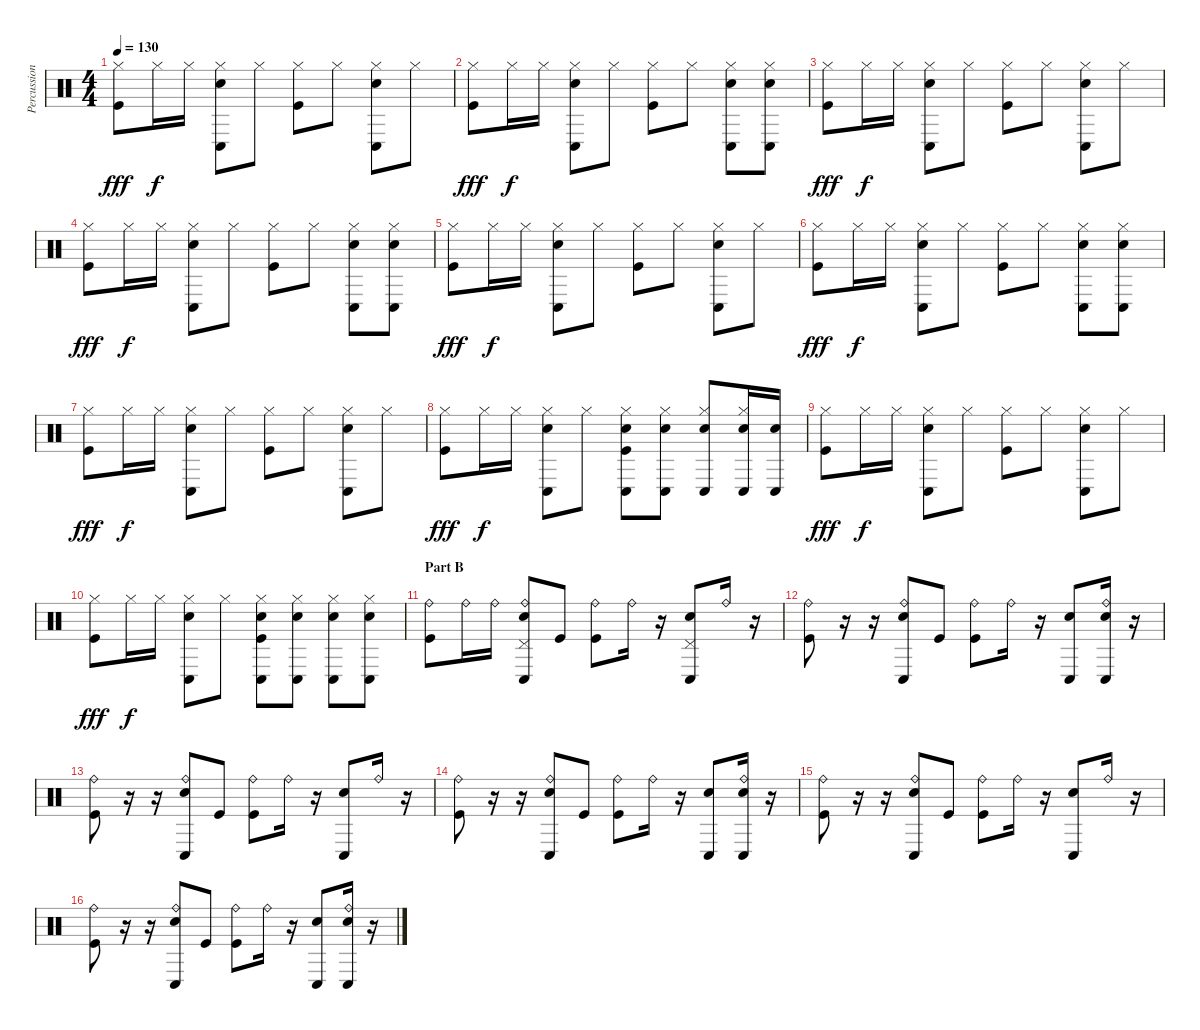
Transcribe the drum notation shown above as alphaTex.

\track ("Percussion" "Percussion") {instrument percussion}
\staff {score}
\articulation defaults
\ts (4 4)
\tempo 130
\clef neutral
\ks c
("Hi-Hat (closed)" "Kick (hit)").8{dy fff} "Hi-Hat (closed)".16{dy f} "Hi-Hat (closed)".16 ("Hi-Hat (closed)" "Conga low (hit)" "Electric Snare (hit)").8 "Hi-Hat (closed)".8 ("Hi-Hat (closed)" "Kick (hit)").8 "Hi-Hat (closed)".8 ("Hi-Hat (closed)" "Conga low (hit)" "Electric Snare (hit)").8 "Hi-Hat (closed)".8 |
("Hi-Hat (closed)" "Kick (hit)").8{dy fff} "Hi-Hat (closed)".16{dy f} "Hi-Hat (closed)".16 ("Hi-Hat (closed)" "Conga low (hit)" "Electric Snare (hit)").8 "Hi-Hat (closed)".8 ("Hi-Hat (closed)" "Kick (hit)").8 "Hi-Hat (closed)".8 ("Hi-Hat (closed)" "Conga low (hit)" "Electric Snare (hit)").8 ("Hi-Hat (closed)" "Conga low (hit)" "Electric Snare (hit)").8 |
("Hi-Hat (closed)" "Kick (hit)").8{dy fff} "Hi-Hat (closed)".16{dy f} "Hi-Hat (closed)".16 ("Hi-Hat (closed)" "Conga low (hit)" "Electric Snare (hit)").8 "Hi-Hat (closed)".8 ("Hi-Hat (closed)" "Kick (hit)").8 "Hi-Hat (closed)".8 ("Hi-Hat (closed)" "Conga low (hit)" "Electric Snare (hit)").8 "Hi-Hat (closed)".8 |
("Hi-Hat (closed)" "Kick (hit)").8{dy fff} "Hi-Hat (closed)".16{dy f} "Hi-Hat (closed)".16 ("Hi-Hat (closed)" "Conga low (hit)" "Electric Snare (hit)").8 "Hi-Hat (closed)".8 ("Hi-Hat (closed)" "Kick (hit)").8 "Hi-Hat (closed)".8 ("Hi-Hat (closed)" "Conga low (hit)" "Electric Snare (hit)").8 ("Hi-Hat (closed)" "Conga low (hit)" "Electric Snare (hit)").8 |
("Hi-Hat (closed)" "Kick (hit)").8{dy fff} "Hi-Hat (closed)".16{dy f} "Hi-Hat (closed)".16 ("Hi-Hat (closed)" "Conga low (hit)" "Electric Snare (hit)").8 "Hi-Hat (closed)".8 ("Hi-Hat (closed)" "Kick (hit)").8 "Hi-Hat (closed)".8 ("Hi-Hat (closed)" "Conga low (hit)" "Electric Snare (hit)").8 "Hi-Hat (closed)".8 |
("Hi-Hat (closed)" "Kick (hit)").8{dy fff} "Hi-Hat (closed)".16{dy f} "Hi-Hat (closed)".16 ("Hi-Hat (closed)" "Conga low (hit)" "Electric Snare (hit)").8 "Hi-Hat (closed)".8 ("Hi-Hat (closed)" "Kick (hit)").8 "Hi-Hat (closed)".8 ("Hi-Hat (closed)" "Conga low (hit)" "Electric Snare (hit)").8 ("Hi-Hat (closed)" "Conga low (hit)" "Electric Snare (hit)").8 |
("Hi-Hat (closed)" "Kick (hit)").8{dy fff} "Hi-Hat (closed)".16{dy f} "Hi-Hat (closed)".16 ("Hi-Hat (closed)" "Conga low (hit)" "Electric Snare (hit)").8 "Hi-Hat (closed)".8 ("Hi-Hat (closed)" "Kick (hit)").8 "Hi-Hat (closed)".8 ("Hi-Hat (closed)" "Conga low (hit)" "Electric Snare (hit)").8 "Hi-Hat (closed)".8 |
("Hi-Hat (closed)" "Kick (hit)").8{dy fff} "Hi-Hat (closed)".16{dy f} "Hi-Hat (closed)".16 ("Hi-Hat (closed)" "Conga low (hit)" "Electric Snare (hit)").8 "Hi-Hat (closed)".8 ("Hi-Hat (closed)" "Conga low (hit)" "Electric Snare (hit)" "Kick (hit)").8 ("Hi-Hat (closed)" "Conga low (hit)" "Electric Snare (hit)").8 ("Hi-Hat (closed)" "Conga low (hit)" "Electric Snare (hit)").8 ("Hi-Hat (closed)" "Conga low (hit)" "Electric Snare (hit)").16 ("Conga low (hit)" "Electric Snare (hit)").16 |
("Hi-Hat (closed)" "Kick (hit)").8{dy fff} "Hi-Hat (closed)".16{dy f} "Hi-Hat (closed)".16 ("Hi-Hat (closed)" "Conga low (hit)" "Electric Snare (hit)").8 "Hi-Hat (closed)".8 ("Hi-Hat (closed)" "Kick (hit)").8 "Hi-Hat (closed)".8 ("Hi-Hat (closed)" "Conga low (hit)" "Electric Snare (hit)").8 "Hi-Hat (closed)".8 |
("Hi-Hat (closed)" "Kick (hit)").8{dy fff} "Hi-Hat (closed)".16{dy f} "Hi-Hat (closed)".16 ("Hi-Hat (closed)" "Conga low (hit)" "Electric Snare (hit)").8 "Hi-Hat (closed)".8 ("Hi-Hat (closed)" "Conga low (hit)" "Electric Snare (hit)" "Kick (hit)").8 ("Hi-Hat (closed)" "Conga low (hit)" "Electric Snare (hit)").8 ("Hi-Hat (closed)" "Conga low (hit)" "Electric Snare (hit)").8 ("Hi-Hat (closed)" "Conga low (hit)" "Electric Snare (hit)").8 |
\section ("" "Part B")
("Ride (bell)" "Kick (hit)").8 "Ride (bell)".16 "Ride (bell)".16 ("Ride (bell)" "Pedal Hi-Hat (hit)" "Conga low (hit)" "Electric Snare (hit)").8 "Kick (hit)".8 ("Ride (bell)" "Kick (hit)").8 "Ride (bell)".16 r.16 ("Pedal Hi-Hat (hit)" "Conga low (hit)" "Electric Snare (hit)").8 "Ride (bell)".16 r.16 |
("Ride (bell)" "Kick (hit)").8 r.16 r.16 ("Ride (bell)" "Conga low (hit)" "Electric Snare (hit)").8 "Kick (hit)".8 ("Ride (bell)" "Kick (hit)").8 "Ride (bell)".16 r.16 ("Conga low (hit)" "Electric Snare (hit)").8 ("Ride (bell)" "Conga low (hit)" "Electric Snare (hit)").16 r.16 |
("Ride (bell)" "Kick (hit)").8 r.16 r.16 ("Ride (bell)" "Conga low (hit)" "Electric Snare (hit)").8 "Kick (hit)".8 ("Ride (bell)" "Kick (hit)").8 "Ride (bell)".16 r.16 ("Conga low (hit)" "Electric Snare (hit)").8 "Ride (bell)".16 r.16 |
("Ride (bell)" "Kick (hit)").8 r.16 r.16 ("Ride (bell)" "Conga low (hit)" "Electric Snare (hit)").8 "Kick (hit)".8 ("Ride (bell)" "Kick (hit)").8 "Ride (bell)".16 r.16 ("Conga low (hit)" "Electric Snare (hit)").8 ("Ride (bell)" "Conga low (hit)" "Electric Snare (hit)").16 r.16 |
("Ride (bell)" "Kick (hit)").8 r.16 r.16 ("Ride (bell)" "Conga low (hit)" "Electric Snare (hit)").8 "Kick (hit)".8 ("Ride (bell)" "Kick (hit)").8 "Ride (bell)".16 r.16 ("Conga low (hit)" "Electric Snare (hit)").8 "Ride (bell)".16 r.16 |
("Ride (bell)" "Kick (hit)").8 r.16 r.16 ("Ride (bell)" "Conga low (hit)" "Electric Snare (hit)").8 "Kick (hit)".8 ("Ride (bell)" "Kick (hit)").8 "Ride (bell)".16 r.16 ("Conga low (hit)" "Electric Snare (hit)").8 ("Ride (bell)" "Conga low (hit)" "Electric Snare (hit)").16 r.16
